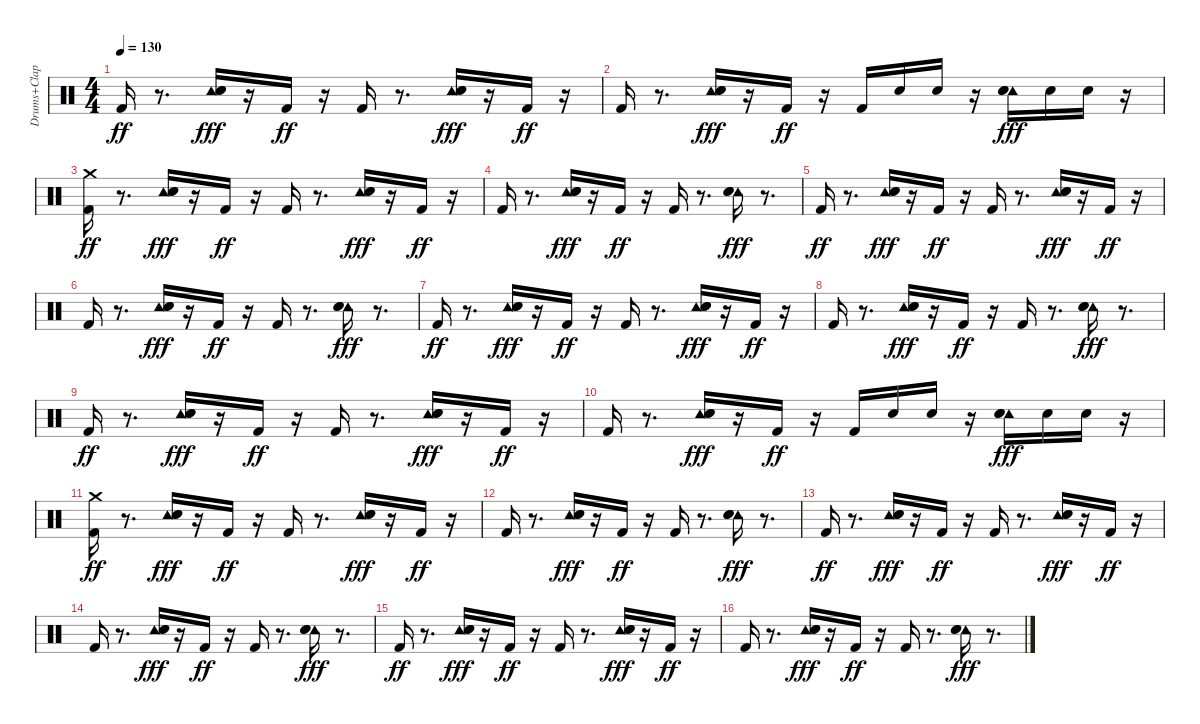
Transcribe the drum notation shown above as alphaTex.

\track ("Drums+Clap" "Drums+Clap") {instrument percussion}
\staff {score}
\articulation defaults
\ts (4 4)
\tempo 130
\clef neutral
\ks c "Kick (hit) 2".16{dy ff}
r.8{d} ("Tambourine (hit)" "Electric Snare (hit)" "Hand Clap (hit)").16{dy fff} r.16 "Kick (hit) 2".16{dy ff} r.16 "Kick (hit) 2".16 r.8{d} ("Tambourine (hit)" "Electric Snare (hit)" "Hand Clap (hit)").16{dy fff} r.16 "Kick (hit) 2".16{dy ff} r.16 |
"Kick (hit) 2".16 r.8{d} ("Tambourine (hit)" "Electric Snare (hit)" "Hand Clap (hit)").16{dy fff} r.16 "Kick (hit) 2".16{dy ff} r.16 "Kick (hit) 2".16 "Electric Snare (hit)".16 "Electric Snare (hit)".16 r.16 ("Tambourine (hit)" "Electric Snare (hit)" "Hand Clap (hit)").16{dy fff} "Electric Snare (hit)".16 "Electric Snare (hit)".16 r.16 |
("Crash medium (hit)" "Kick (hit) 2").16{dy ff} r.8{d} ("Tambourine (hit)" "Electric Snare (hit)" "Hand Clap (hit)").16{dy fff} r.16 "Kick (hit) 2".16{dy ff} r.16 "Kick (hit) 2".16 r.8{d} ("Tambourine (hit)" "Electric Snare (hit)" "Hand Clap (hit)").16{dy fff} r.16 "Kick (hit) 2".16{dy ff} r.16 |
"Kick (hit) 2".16 r.8{d} ("Tambourine (hit)" "Electric Snare (hit)" "Hand Clap (hit)").16{dy fff} r.16 "Kick (hit) 2".16{dy ff} r.16 "Kick (hit) 2".16 r.8{d} ("Tambourine (hit)" "Electric Snare (hit)" "Hand Clap (hit)").16{dy fff} r.8{d} |
"Kick (hit) 2".16{dy ff} r.8{d} ("Tambourine (hit)" "Electric Snare (hit)" "Hand Clap (hit)").16{dy fff} r.16 "Kick (hit) 2".16{dy ff} r.16 "Kick (hit) 2".16 r.8{d} ("Tambourine (hit)" "Electric Snare (hit)" "Hand Clap (hit)").16{dy fff} r.16 "Kick (hit) 2".16{dy ff} r.16 |
"Kick (hit) 2".16 r.8{d} ("Tambourine (hit)" "Electric Snare (hit)" "Hand Clap (hit)").16{dy fff} r.16 "Kick (hit) 2".16{dy ff} r.16 "Kick (hit) 2".16 r.8{d} ("Tambourine (hit)" "Electric Snare (hit)" "Hand Clap (hit)").16{dy fff} r.8{d} |
"Kick (hit) 2".16{dy ff} r.8{d} ("Tambourine (hit)" "Electric Snare (hit)" "Hand Clap (hit)").16{dy fff} r.16 "Kick (hit) 2".16{dy ff} r.16 "Kick (hit) 2".16 r.8{d} ("Tambourine (hit)" "Electric Snare (hit)" "Hand Clap (hit)").16{dy fff} r.16 "Kick (hit) 2".16{dy ff} r.16 |
"Kick (hit) 2".16 r.8{d} ("Tambourine (hit)" "Electric Snare (hit)" "Hand Clap (hit)").16{dy fff} r.16 "Kick (hit) 2".16{dy ff} r.16 "Kick (hit) 2".16 r.8{d} ("Tambourine (hit)" "Electric Snare (hit)" "Hand Clap (hit)").16{dy fff} r.8{d} |
"Kick (hit) 2".16{dy ff} r.8{d} ("Tambourine (hit)" "Electric Snare (hit)" "Hand Clap (hit)").16{dy fff} r.16 "Kick (hit) 2".16{dy ff} r.16 "Kick (hit) 2".16 r.8{d} ("Tambourine (hit)" "Electric Snare (hit)" "Hand Clap (hit)").16{dy fff} r.16 "Kick (hit) 2".16{dy ff} r.16 |
"Kick (hit) 2".16 r.8{d} ("Tambourine (hit)" "Electric Snare (hit)" "Hand Clap (hit)").16{dy fff} r.16 "Kick (hit) 2".16{dy ff} r.16 "Kick (hit) 2".16 "Electric Snare (hit)".16 "Electric Snare (hit)".16 r.16 ("Tambourine (hit)" "Electric Snare (hit)" "Hand Clap (hit)").16{dy fff} "Electric Snare (hit)".16 "Electric Snare (hit)".16 r.16 |
("Crash medium (hit)" "Kick (hit) 2").16{dy ff} r.8{d} ("Tambourine (hit)" "Electric Snare (hit)" "Hand Clap (hit)").16{dy fff} r.16 "Kick (hit) 2".16{dy ff} r.16 "Kick (hit) 2".16 r.8{d} ("Tambourine (hit)" "Electric Snare (hit)" "Hand Clap (hit)").16{dy fff} r.16 "Kick (hit) 2".16{dy ff} r.16 |
"Kick (hit) 2".16 r.8{d} ("Tambourine (hit)" "Electric Snare (hit)" "Hand Clap (hit)").16{dy fff} r.16 "Kick (hit) 2".16{dy ff} r.16 "Kick (hit) 2".16 r.8{d} ("Tambourine (hit)" "Electric Snare (hit)" "Hand Clap (hit)").16{dy fff} r.8{d} |
"Kick (hit) 2".16{dy ff} r.8{d} ("Tambourine (hit)" "Electric Snare (hit)" "Hand Clap (hit)").16{dy fff} r.16 "Kick (hit) 2".16{dy ff} r.16 "Kick (hit) 2".16 r.8{d} ("Tambourine (hit)" "Electric Snare (hit)" "Hand Clap (hit)").16{dy fff} r.16 "Kick (hit) 2".16{dy ff} r.16 |
"Kick (hit) 2".16 r.8{d} ("Tambourine (hit)" "Electric Snare (hit)" "Hand Clap (hit)").16{dy fff} r.16 "Kick (hit) 2".16{dy ff} r.16 "Kick (hit) 2".16 r.8{d} ("Tambourine (hit)" "Electric Snare (hit)" "Hand Clap (hit)").16{dy fff} r.8{d} |
"Kick (hit) 2".16{dy ff} r.8{d} ("Tambourine (hit)" "Electric Snare (hit)" "Hand Clap (hit)").16{dy fff} r.16 "Kick (hit) 2".16{dy ff} r.16 "Kick (hit) 2".16 r.8{d} ("Tambourine (hit)" "Electric Snare (hit)" "Hand Clap (hit)").16{dy fff} r.16 "Kick (hit) 2".16{dy ff} r.16 |
"Kick (hit) 2".16 r.8{d} ("Tambourine (hit)" "Electric Snare (hit)" "Hand Clap (hit)").16{dy fff} r.16 "Kick (hit) 2".16{dy ff} r.16 "Kick (hit) 2".16 r.8{d} ("Tambourine (hit)" "Electric Snare (hit)" "Hand Clap (hit)").16{dy fff} r.8{d}
